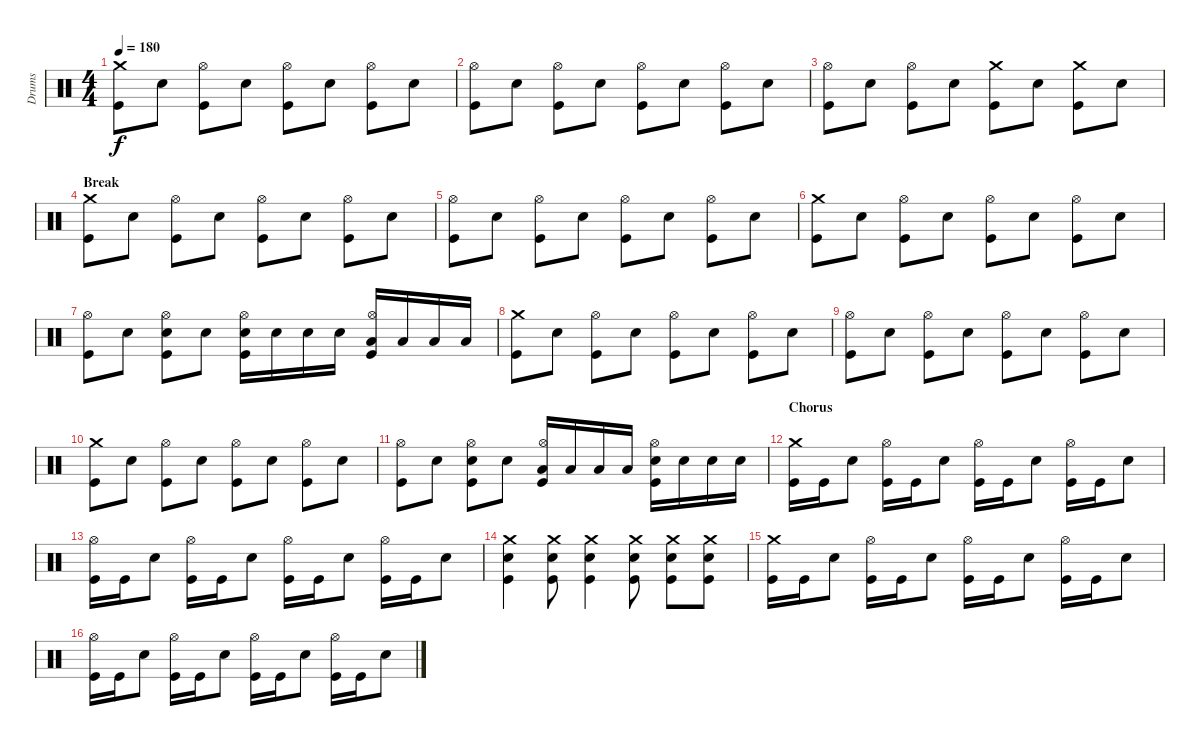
\track ("Drums" "Drums") {instrument percussion}
\staff {score}
\articulation defaults
\ts (4 4)
\tempo 180
\clef neutral
\ks c
("Crash medium (hit)" "Kick (hit)").8{dy f} "Snare (hit) 2".8 ("Hi-Hat (open)" "Kick (hit)").8 "Snare (hit) 2".8 ("Hi-Hat (open)" "Kick (hit)").8 "Snare (hit) 2".8 ("Hi-Hat (open)" "Kick (hit)").8 "Snare (hit) 2".8 |
("Hi-Hat (open)" "Kick (hit)").8 "Snare (hit) 2".8 ("Hi-Hat (open)" "Kick (hit)").8 "Snare (hit) 2".8 ("Hi-Hat (open)" "Kick (hit)").8 "Snare (hit) 2".8 ("Hi-Hat (open)" "Kick (hit)").8 "Snare (hit) 2".8 |
("Hi-Hat (open)" "Kick (hit)").8 "Snare (hit) 2".8 ("Hi-Hat (open)" "Kick (hit)").8 "Snare (hit) 2".8 ("Crash medium (hit)" "Kick (hit)").8 "Snare (hit) 2".8 ("Crash medium (hit)" "Kick (hit)").8 "Snare (hit) 2".8 |
\section ("" "Break")
("Crash medium (hit)" "Kick (hit)").8 "Snare (hit) 2".8 ("Hi-Hat (open)" "Kick (hit)").8 "Snare (hit) 2".8 ("Hi-Hat (open)" "Kick (hit)").8 "Snare (hit) 2".8 ("Hi-Hat (open)" "Kick (hit)").8 "Snare (hit) 2".8 |
("Hi-Hat (open)" "Kick (hit)").8 "Snare (hit) 2".8 ("Hi-Hat (open)" "Kick (hit)").8 "Snare (hit) 2".8 ("Hi-Hat (open)" "Kick (hit)").8 "Snare (hit) 2".8 ("Hi-Hat (open)" "Kick (hit)").8 "Snare (hit) 2".8 |
("Crash medium (hit)" "Kick (hit)").8 "Snare (hit) 2".8 ("Hi-Hat (open)" "Kick (hit)").8 "Snare (hit) 2".8 ("Hi-Hat (open)" "Kick (hit)").8 "Snare (hit) 2".8 ("Hi-Hat (open)" "Kick (hit)").8 "Snare (hit) 2".8 |
("Hi-Hat (open)" "Kick (hit)").8 "Snare (hit) 2".8 ("Hi-Hat (open)" "Snare (hit) 2" "Kick (hit)").8 "Snare (hit) 2".8 ("Hi-Hat (open)" "Snare (hit) 2" "Kick (hit)").16 "Snare (hit) 2".16 "Snare (hit) 2".16 "Snare (hit) 2".16 ("Hi-Hat (open)" "Low Tom (hit)" "Kick (hit)").16 "Low Tom (hit)".16 "Low Tom (hit)".16 "Low Tom (hit)".16 |
("Crash medium (hit)" "Kick (hit)").8 "Snare (hit) 2".8 ("Hi-Hat (open)" "Kick (hit)").8 "Snare (hit) 2".8 ("Hi-Hat (open)" "Kick (hit)").8 "Snare (hit) 2".8 ("Hi-Hat (open)" "Kick (hit)").8 "Snare (hit) 2".8 |
("Hi-Hat (open)" "Kick (hit)").8 "Snare (hit) 2".8 ("Hi-Hat (open)" "Kick (hit)").8 "Snare (hit) 2".8 ("Hi-Hat (open)" "Kick (hit)").8 "Snare (hit) 2".8 ("Hi-Hat (open)" "Kick (hit)").8 "Snare (hit) 2".8 |
("Crash medium (hit)" "Kick (hit)").8 "Snare (hit) 2".8 ("Hi-Hat (open)" "Kick (hit)").8 "Snare (hit) 2".8 ("Hi-Hat (open)" "Kick (hit)").8 "Snare (hit) 2".8 ("Hi-Hat (open)" "Kick (hit)").8 "Snare (hit) 2".8 |
("Hi-Hat (open)" "Kick (hit)").8 "Snare (hit) 2".8 ("Hi-Hat (open)" "Snare (hit) 2" "Kick (hit)").8 "Snare (hit) 2".8 ("Hi-Hat (open)" "Low Tom (hit)" "Kick (hit)").16 "Low Tom (hit)".16 "Low Tom (hit)".16 "Low Tom (hit)".16 ("Hi-Hat (open)" "Snare (hit) 2" "Kick (hit)").16 "Snare (hit) 2".16 "Snare (hit) 2".16 "Snare (hit) 2".16 |
\section ("" "Chorus")
("Crash medium (hit)" "Kick (hit)").16 "Kick (hit)".16 "Snare (hit) 2".8 ("Hi-Hat (open)" "Kick (hit)").16 "Kick (hit)".16 "Snare (hit) 2".8 ("Hi-Hat (open)" "Kick (hit)").16 "Kick (hit)".16 "Snare (hit) 2".8 ("Hi-Hat (open)" "Kick (hit)").16 "Kick (hit)".16 "Snare (hit) 2".8 |
("Hi-Hat (open)" "Kick (hit)").16 "Kick (hit)".16 "Snare (hit) 2".8 ("Hi-Hat (open)" "Kick (hit)").16 "Kick (hit)".16 "Snare (hit) 2".8 ("Hi-Hat (open)" "Kick (hit)").16 "Kick (hit)".16 "Snare (hit) 2".8 ("Hi-Hat (open)" "Kick (hit)").16 "Kick (hit)".16 "Snare (hit) 2".8 |
("Crash medium (hit)" "Snare (hit) 2" "Kick (hit)").4 ("Crash medium (hit)" "Snare (hit) 2" "Kick (hit)").8 ("Crash medium (hit)" "Snare (hit) 2" "Kick (hit)").4 ("Crash medium (hit)" "Snare (hit) 2" "Kick (hit)").8 ("Crash medium (hit)" "Snare (hit) 2" "Kick (hit)").8 ("Crash medium (hit)" "Snare (hit) 2" "Kick (hit)").8 |
("Crash medium (hit)" "Kick (hit)").16 "Kick (hit)".16 "Snare (hit) 2".8 ("Hi-Hat (open)" "Kick (hit)").16 "Kick (hit)".16 "Snare (hit) 2".8 ("Hi-Hat (open)" "Kick (hit)").16 "Kick (hit)".16 "Snare (hit) 2".8 ("Hi-Hat (open)" "Kick (hit)").16 "Kick (hit)".16 "Snare (hit) 2".8 |
("Hi-Hat (open)" "Kick (hit)").16 "Kick (hit)".16 "Snare (hit) 2".8 ("Hi-Hat (open)" "Kick (hit)").16 "Kick (hit)".16 "Snare (hit) 2".8 ("Hi-Hat (open)" "Kick (hit)").16 "Kick (hit)".16 "Snare (hit) 2".8 ("Hi-Hat (open)" "Kick (hit)").16 "Kick (hit)".16 "Snare (hit) 2".8
